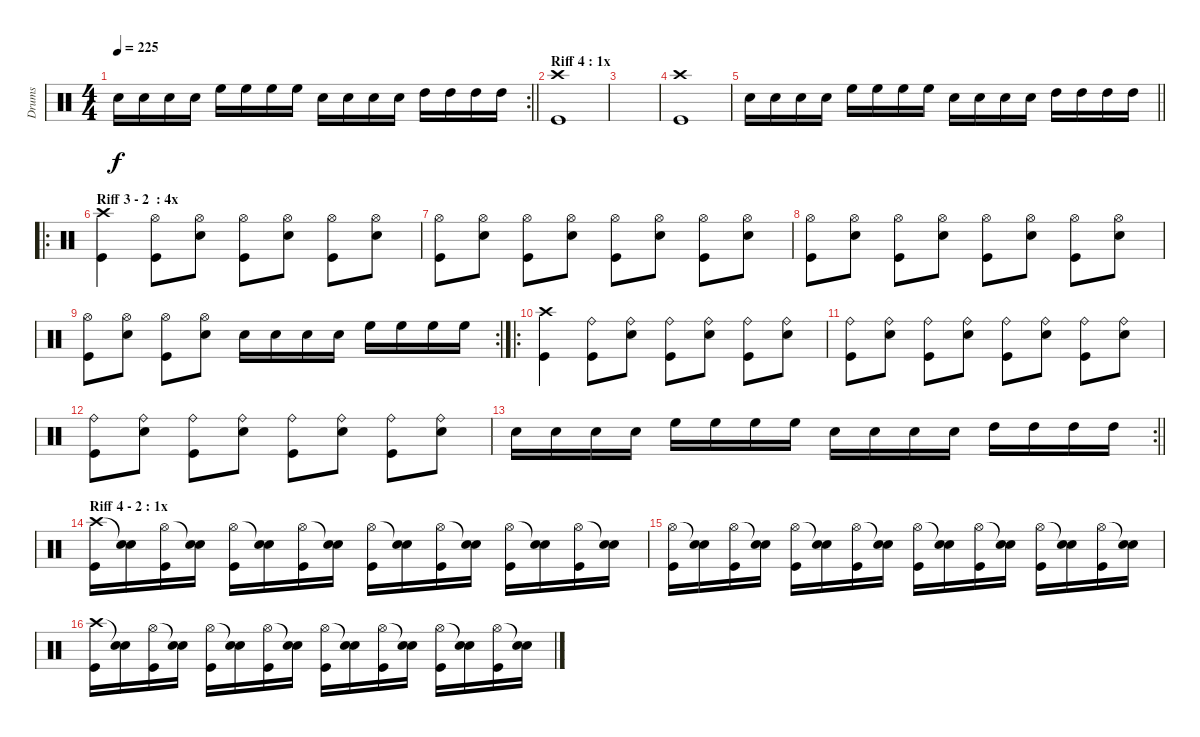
\track ("Drums" "Drums") {instrument percussion}
\staff {score}
\articulation defaults
\rc 2
\ts (4 4)
\tempo 225
\clef neutral
\barLineRight lightlight
\ks c "Electric Snare (hit)".16{dy f} "Electric Snare (hit)".16 "Electric Snare (hit)".16 "Electric Snare (hit)".16 "High Floor Tom (hit)".16 "High Floor Tom (hit)".16 "High Floor Tom (hit)".16 "High Floor Tom (hit)".16 "Electric Snare (hit)".16 "Electric Snare (hit)".16 "Electric Snare (hit)".16 "Electric Snare (hit)".16 "High Tom (hit)".16 "High Tom (hit)".16 "High Tom (hit)".16 "High Tom (hit)".16
|
\section ("" "Riff 4 : 1x")
("Crash high (hit)" "Kick (hit)").1 |
|
("Crash high (hit)" "Kick (hit)").1 |
\barLineRight lightlight "Electric Snare (hit)".16 "Electric Snare (hit)".16 "Electric Snare (hit)".16 "Electric Snare (hit)".16 "High Floor Tom (hit)".16 "High Floor Tom (hit)".16 "High Floor Tom (hit)".16 "High Floor Tom (hit)".16 "Electric Snare (hit)".16 "Electric Snare (hit)".16 "Electric Snare (hit)".16 "Electric Snare (hit)".16 "High Tom (hit)".16 "High Tom (hit)".16 "High Tom (hit)".16 "High Tom (hit)".16
|
\ro
\section ("" "Riff 3 - 2  : 4x")
("Crash high (hit)" "Kick (hit)").4 ("Hi-Hat (open)" "Kick (hit)").8 ("Hi-Hat (open)" "Electric Snare (hit)").8 ("Hi-Hat (open)" "Kick (hit)").8 ("Hi-Hat (open)" "Electric Snare (hit)").8 ("Hi-Hat (open)" "Kick (hit)").8 ("Hi-Hat (open)" "Electric Snare (hit)").8 |
("Hi-Hat (open)" "Kick (hit)").8 ("Hi-Hat (open)" "Electric Snare (hit)").8 ("Hi-Hat (open)" "Kick (hit)").8 ("Hi-Hat (open)" "Electric Snare (hit)").8 ("Hi-Hat (open)" "Kick (hit)").8 ("Hi-Hat (open)" "Electric Snare (hit)").8 ("Hi-Hat (open)" "Kick (hit)").8 ("Hi-Hat (open)" "Electric Snare (hit)").8 |
("Hi-Hat (open)" "Kick (hit)").8 ("Hi-Hat (open)" "Electric Snare (hit)").8 ("Hi-Hat (open)" "Kick (hit)").8 ("Hi-Hat (open)" "Electric Snare (hit)").8 ("Hi-Hat (open)" "Kick (hit)").8 ("Hi-Hat (open)" "Electric Snare (hit)").8 ("Hi-Hat (open)" "Kick (hit)").8 ("Hi-Hat (open)" "Electric Snare (hit)").8 |
\rc 2
("Hi-Hat (open)" "Kick (hit)").8 ("Hi-Hat (open)" "Electric Snare (hit)").8 ("Hi-Hat (open)" "Kick (hit)").8 ("Hi-Hat (open)" "Electric Snare (hit)").8 "Electric Snare (hit)".16 "Electric Snare (hit)".16 "Electric Snare (hit)".16 "Electric Snare (hit)".16 "High Floor Tom (hit)".16 "High Floor Tom (hit)".16 "High Floor Tom (hit)".16 "High Floor Tom (hit)".16 |
\ro
("Crash high (hit)" "Kick (hit)").4 ("Ride (bell)" "Kick (hit)").8 ("Ride (bell)" "Electric Snare (hit)").8 ("Ride (bell)" "Kick (hit)").8 ("Ride (bell)" "Electric Snare (hit)").8 ("Ride (bell)" "Kick (hit)").8 ("Ride (bell)" "Electric Snare (hit)").8 |
("Ride (bell)" "Kick (hit)").8 ("Ride (bell)" "Electric Snare (hit)").8 ("Ride (bell)" "Kick (hit)").8 ("Ride (bell)" "Electric Snare (hit)").8 ("Ride (bell)" "Kick (hit)").8 ("Ride (bell)" "Electric Snare (hit)").8 ("Ride (bell)" "Kick (hit)").8 ("Ride (bell)" "Electric Snare (hit)").8 |
("Ride (bell)" "Kick (hit)").8 ("Ride (bell)" "Electric Snare (hit)").8 ("Ride (bell)" "Kick (hit)").8 ("Ride (bell)" "Electric Snare (hit)").8 ("Ride (bell)" "Kick (hit)").8 ("Ride (bell)" "Electric Snare (hit)").8 ("Ride (bell)" "Kick (hit)").8 ("Ride (bell)" "Electric Snare (hit)").8 |
\rc 2
\barLineRight lightlight "Electric Snare (hit)".16 "Electric Snare (hit)".16 "Electric Snare (hit)".16 "Electric Snare (hit)".16 "High Floor Tom (hit)".16 "High Floor Tom (hit)".16 "High Floor Tom (hit)".16 "High Floor Tom (hit)".16 "Electric Snare (hit)".16 "Electric Snare (hit)".16 "Electric Snare (hit)".16 "Electric Snare (hit)".16 "High Tom (hit)".16 "High Tom (hit)".16 "High Tom (hit)".16 "High Tom (hit)".16
|
\section ("" "Riff 4 - 2 : 1x")
("Crash high (hit)" "Kick (hit)").16 ("Snare (hit)"{t} "Electric Snare (hit)").16 ("Hi-Hat (open)" "Kick (hit)").16 ("Snare (hit)"{t} "Electric Snare (hit)").16 ("Hi-Hat (open)" "Kick (hit)").16 ("Snare (hit)"{t} "Electric Snare (hit)").16 ("Hi-Hat (open)" "Kick (hit)").16 ("Snare (hit)"{t} "Electric Snare (hit)").16 ("Hi-Hat (open)" "Kick (hit)").16 ("Snare (hit)"{t} "Electric Snare (hit)").16 ("Hi-Hat (open)" "Kick (hit)").16 ("Snare (hit)"{t} "Electric Snare (hit)").16 ("Hi-Hat (open)" "Kick (hit)").16 ("Snare (hit)"{t} "Electric Snare (hit)").16 ("Hi-Hat (open)" "Kick (hit)").16 ("Snare (hit)"{t} "Electric Snare (hit)").16 |
("Hi-Hat (open)" "Kick (hit)").16 ("Snare (hit)"{t} "Electric Snare (hit)").16 ("Hi-Hat (open)" "Kick (hit)").16 ("Snare (hit)"{t} "Electric Snare (hit)").16 ("Hi-Hat (open)" "Kick (hit)").16 ("Snare (hit)"{t} "Electric Snare (hit)").16 ("Hi-Hat (open)" "Kick (hit)").16 ("Snare (hit)"{t} "Electric Snare (hit)").16 ("Hi-Hat (open)" "Kick (hit)").16 ("Snare (hit)"{t} "Electric Snare (hit)").16 ("Hi-Hat (open)" "Kick (hit)").16 ("Snare (hit)"{t} "Electric Snare (hit)").16 ("Hi-Hat (open)" "Kick (hit)").16 ("Snare (hit)"{t} "Electric Snare (hit)").16 ("Hi-Hat (open)" "Kick (hit)").16 ("Snare (hit)"{t} "Electric Snare (hit)").16 |
("Crash high (hit)" "Kick (hit)").16 ("Snare (hit)"{t} "Electric Snare (hit)").16 ("Hi-Hat (open)" "Kick (hit)").16 ("Snare (hit)"{t} "Electric Snare (hit)").16 ("Hi-Hat (open)" "Kick (hit)").16 ("Snare (hit)"{t} "Electric Snare (hit)").16 ("Hi-Hat (open)" "Kick (hit)").16 ("Snare (hit)"{t} "Electric Snare (hit)").16 ("Hi-Hat (open)" "Kick (hit)").16 ("Snare (hit)"{t} "Electric Snare (hit)").16 ("Hi-Hat (open)" "Kick (hit)").16 ("Snare (hit)"{t} "Electric Snare (hit)").16 ("Hi-Hat (open)" "Kick (hit)").16 ("Snare (hit)"{t} "Electric Snare (hit)").16 ("Hi-Hat (open)" "Kick (hit)").16 ("Snare (hit)"{t} "Electric Snare (hit)").16
